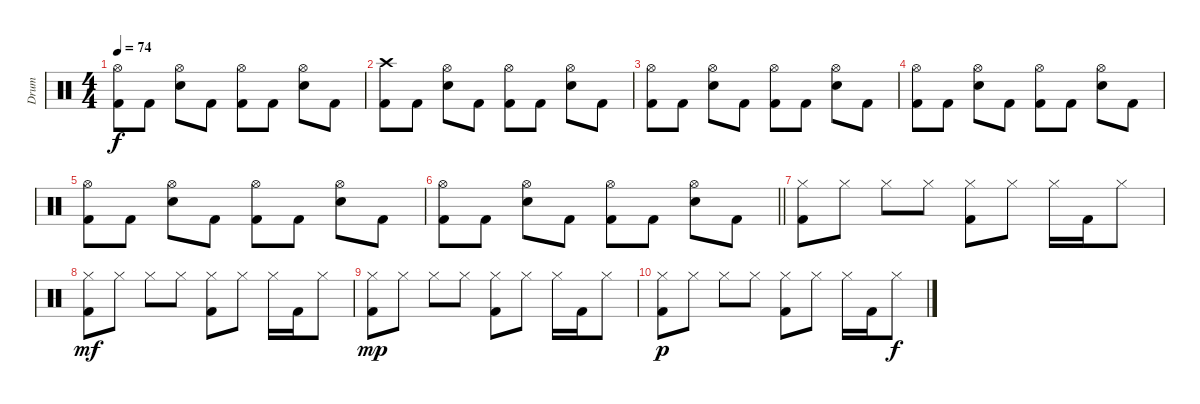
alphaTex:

\track ("Drum" "Drum") {instrument percussion}
\staff {score}
\articulation defaults
\ts (4 4)
\tempo 74
\clef neutral
\ks c
("Hi-Hat (open)" "Kick (hit) 2").8{dy f} "Kick (hit) 2".8 ("Snare (hit) 2" "Hi-Hat (open)").8 "Kick (hit) 2".8 ("Kick (hit) 2" "Hi-Hat (open)").8 "Kick (hit) 2".8 ("Snare (hit) 2" "Hi-Hat (open)").8 "Kick (hit) 2".8 |
("Kick (hit) 2" "Crash high (hit)").8 "Kick (hit) 2".8 ("Snare (hit) 2" "Hi-Hat (open)").8 "Kick (hit) 2".8 ("Kick (hit) 2" "Hi-Hat (open)").8 "Kick (hit) 2".8 ("Snare (hit) 2" "Hi-Hat (open)").8 "Kick (hit) 2".8 |
("Hi-Hat (open)" "Kick (hit) 2").8 "Kick (hit) 2".8 ("Snare (hit) 2" "Hi-Hat (open)").8 "Kick (hit) 2".8 ("Kick (hit) 2" "Hi-Hat (open)").8 "Kick (hit) 2".8 ("Snare (hit) 2" "Hi-Hat (open)").8 "Kick (hit) 2".8 |
("Hi-Hat (open)" "Kick (hit) 2").8 "Kick (hit) 2".8 ("Snare (hit) 2" "Hi-Hat (open)").8 "Kick (hit) 2".8 ("Kick (hit) 2" "Hi-Hat (open)").8 "Kick (hit) 2".8 ("Snare (hit) 2" "Hi-Hat (open)").8 "Kick (hit) 2".8 |
("Hi-Hat (open)" "Kick (hit) 2").8 "Kick (hit) 2".8 ("Snare (hit) 2" "Hi-Hat (open)").8 "Kick (hit) 2".8 ("Kick (hit) 2" "Hi-Hat (open)").8 "Kick (hit) 2".8 ("Snare (hit) 2" "Hi-Hat (open)").8 "Kick (hit) 2".8 |
\barLineRight lightlight
("Hi-Hat (open)" "Kick (hit) 2").8 "Kick (hit) 2".8 ("Snare (hit) 2" "Hi-Hat (open)").8 "Kick (hit) 2".8 ("Kick (hit) 2" "Hi-Hat (open)").8 "Kick (hit) 2".8 ("Snare (hit) 2" "Hi-Hat (open)").8 "Kick (hit) 2".8 |
("Kick (hit) 2" "Hi-Hat (closed)").8 "Hi-Hat (closed)".8 "Hi-Hat (closed)".8 "Hi-Hat (closed)".8 ("Hi-Hat (closed)" "Kick (hit) 2").8 "Hi-Hat (closed)".8 "Hi-Hat (closed)".16 "Kick (hit) 2".16 "Hi-Hat (closed)".8 |
("Kick (hit) 2" "Hi-Hat (closed)").8{dy mf} "Hi-Hat (closed)".8 "Hi-Hat (closed)".8 "Hi-Hat (closed)".8 ("Hi-Hat (closed)" "Kick (hit) 2").8 "Hi-Hat (closed)".8 "Hi-Hat (closed)".16 "Kick (hit) 2".16 "Hi-Hat (closed)".8 |
("Kick (hit) 2" "Hi-Hat (closed)").8{dy mp} "Hi-Hat (closed)".8 "Hi-Hat (closed)".8 "Hi-Hat (closed)".8 ("Hi-Hat (closed)" "Kick (hit) 2").8 "Hi-Hat (closed)".8 "Hi-Hat (closed)".16 "Kick (hit) 2".16 "Hi-Hat (closed)".8 |
("Kick (hit) 2" "Hi-Hat (closed)").8{dy p} "Hi-Hat (closed)".8 "Hi-Hat (closed)".8 "Hi-Hat (closed)".8 ("Hi-Hat (closed)" "Kick (hit) 2").8 "Hi-Hat (closed)".8 "Hi-Hat (closed)".16 "Kick (hit) 2".16 "Hi-Hat (closed)".8{dy f}
